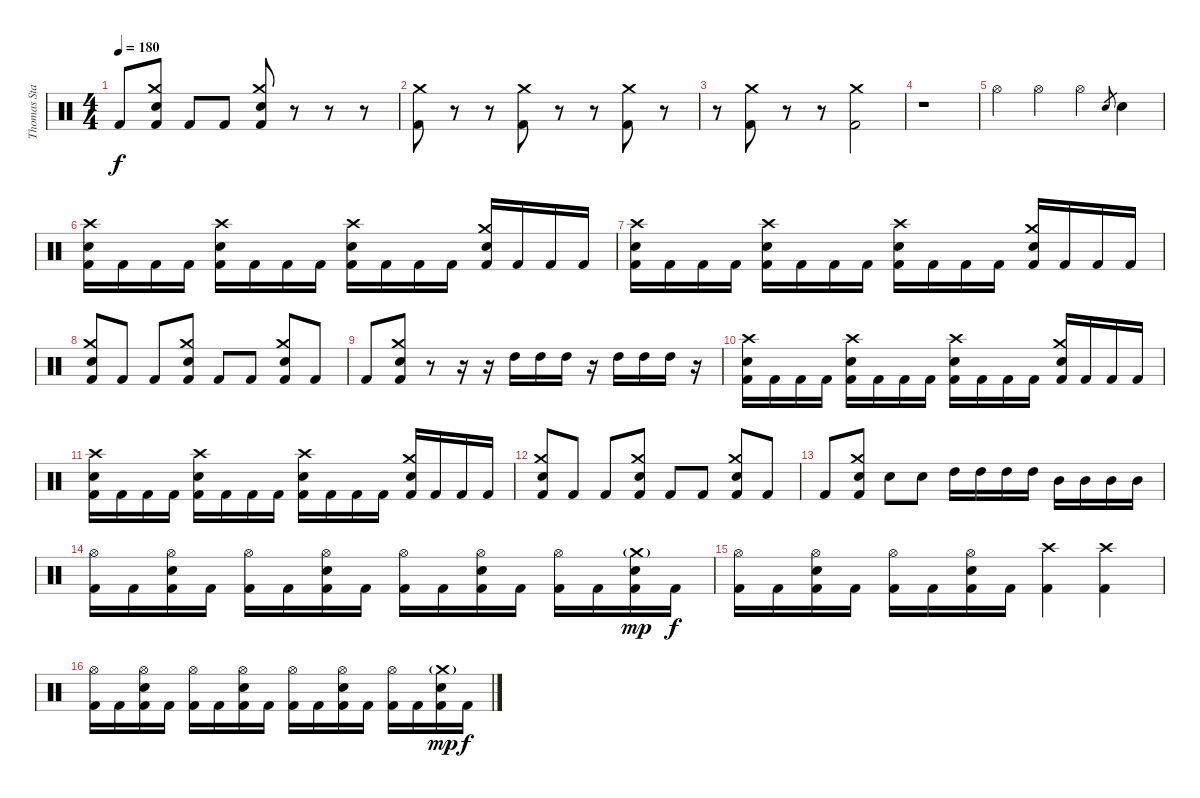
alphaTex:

\track ("Thomas Stauch" "Thomas Sta") {instrument percussion}
\staff {score}
\articulation defaults
\ts (4 4)
\tempo 180
\clef neutral
\ks c "Kick (hit) 2".8{dy f}
("Crash medium (hit)" "Electric Snare (hit)" "Kick (hit) 2").8 "Kick (hit) 2".8 "Kick (hit) 2".8 ("Crash medium (hit)" "Electric Snare (hit)" "Kick (hit) 2").8 r.8 r.8 r.8 |
("Crash medium (hit)" "Kick (hit) 2").8 r.8 r.8 ("Crash medium (hit)" "Kick (hit) 2").8 r.8 r.8 ("Crash medium (hit)" "Kick (hit) 2").8 r.8 |
r.8 ("Crash medium (hit)" "Kick (hit) 2").8 r.8 r.8 ("Crash medium (hit)" "Kick (hit) 2").2 |
r.1 |
"Hi-Hat (open)".4 "Hi-Hat (open)".4 "Hi-Hat (open)".4 "Electric Snare (hit)".8{gr} "Electric Snare (hit)".4 |
("Crash high (hit)" "Electric Snare (hit)" "Kick (hit) 2").16 "Kick (hit) 2".16 "Kick (hit) 2".16 "Kick (hit) 2".16 ("Crash high (hit)" "Electric Snare (hit)" "Kick (hit) 2").16 "Kick (hit) 2".16 "Kick (hit) 2".16 "Kick (hit) 2".16 ("Crash high (hit)" "Electric Snare (hit)" "Kick (hit) 2").16 "Kick (hit) 2".16 "Kick (hit) 2".16 "Kick (hit) 2".16 ("Crash medium (hit)" "Electric Snare (hit)" "Kick (hit) 2").16 "Kick (hit) 2".16 "Kick (hit) 2".16 "Kick (hit) 2".16 |
("Crash high (hit)" "Electric Snare (hit)" "Kick (hit) 2").16 "Kick (hit) 2".16 "Kick (hit) 2".16 "Kick (hit) 2".16 ("Crash high (hit)" "Electric Snare (hit)" "Kick (hit) 2").16 "Kick (hit) 2".16 "Kick (hit) 2".16 "Kick (hit) 2".16 ("Crash high (hit)" "Electric Snare (hit)" "Kick (hit) 2").16 "Kick (hit) 2".16 "Kick (hit) 2".16 "Kick (hit) 2".16 ("Crash medium (hit)" "Electric Snare (hit)" "Kick (hit) 2").16 "Kick (hit) 2".16 "Kick (hit) 2".16 "Kick (hit) 2".16 |
("Crash medium (hit)" "Electric Snare (hit)" "Kick (hit) 2").8 "Kick (hit) 2".8 "Kick (hit) 2".8 ("Crash medium (hit)" "Electric Snare (hit)" "Kick (hit) 2").8 "Kick (hit) 2".8 "Kick (hit) 2".8 ("Crash medium (hit)" "Electric Snare (hit)" "Kick (hit) 2").8 "Kick (hit) 2".8 |
"Kick (hit) 2".8 ("Crash medium (hit)" "Electric Snare (hit)" "Kick (hit) 2").8 r.8 r.16 r.16 "High Tom (hit)".16 "High Tom (hit)".16 "High Tom (hit)".16 r.16 "High Tom (hit)".16 "High Tom (hit)".16 "High Tom (hit)".16 r.16 |
("Crash high (hit)" "Electric Snare (hit)" "Kick (hit) 2").16 "Kick (hit) 2".16 "Kick (hit) 2".16 "Kick (hit) 2".16 ("Crash high (hit)" "Electric Snare (hit)" "Kick (hit) 2").16 "Kick (hit) 2".16 "Kick (hit) 2".16 "Kick (hit) 2".16 ("Crash high (hit)" "Electric Snare (hit)" "Kick (hit) 2").16 "Kick (hit) 2".16 "Kick (hit) 2".16 "Kick (hit) 2".16 ("Crash medium (hit)" "Electric Snare (hit)" "Kick (hit) 2").16 "Kick (hit) 2".16 "Kick (hit) 2".16 "Kick (hit) 2".16 |
("Crash high (hit)" "Electric Snare (hit)" "Kick (hit) 2").16 "Kick (hit) 2".16 "Kick (hit) 2".16 "Kick (hit) 2".16 ("Crash high (hit)" "Electric Snare (hit)" "Kick (hit) 2").16 "Kick (hit) 2".16 "Kick (hit) 2".16 "Kick (hit) 2".16 ("Crash high (hit)" "Electric Snare (hit)" "Kick (hit) 2").16 "Kick (hit) 2".16 "Kick (hit) 2".16 "Kick (hit) 2".16 ("Crash medium (hit)" "Electric Snare (hit)" "Kick (hit) 2").16 "Kick (hit) 2".16 "Kick (hit) 2".16 "Kick (hit) 2".16 |
("Crash medium (hit)" "Electric Snare (hit)" "Kick (hit) 2").8 "Kick (hit) 2".8 "Kick (hit) 2".8 ("Crash medium (hit)" "Electric Snare (hit)" "Kick (hit) 2").8 "Kick (hit) 2".8 "Kick (hit) 2".8 ("Crash medium (hit)" "Electric Snare (hit)" "Kick (hit) 2").8 "Kick (hit) 2".8 |
"Kick (hit) 2".8 ("Crash medium (hit)" "Electric Snare (hit)" "Kick (hit) 2").8 "Electric Snare (hit)".8 "Electric Snare (hit)".8 "High Tom (hit)".16 "High Tom (hit)".16 "High Tom (hit)".16 "High Tom (hit)".16 "Mid Tom (hit)".16 "Mid Tom (hit)".16 "Mid Tom (hit)".16 "Mid Tom (hit)".16 |
("Hi-Hat (open)" "Kick (hit) 2").16 "Kick (hit) 2".16 ("Hi-Hat (open)" "Electric Snare (hit)" "Kick (hit) 2").16 "Kick (hit) 2".16 ("Hi-Hat (open)" "Kick (hit) 2").16 "Kick (hit) 2".16 ("Hi-Hat (open)" "Electric Snare (hit)" "Kick (hit) 2").16 "Kick (hit) 2".16 ("Hi-Hat (open)" "Kick (hit) 2").16 "Kick (hit) 2".16 ("Hi-Hat (open)" "Electric Snare (hit)" "Kick (hit) 2").16 "Kick (hit) 2".16 ("Hi-Hat (open)" "Kick (hit) 2").16 "Kick (hit) 2".16 ("Crash medium (hit)"{g} "Electric Snare (hit)" "Kick (hit) 2").16{dy mp} "Kick (hit) 2".16{dy f} |
("Hi-Hat (open)" "Kick (hit) 2").16 "Kick (hit) 2".16 ("Hi-Hat (open)" "Electric Snare (hit)" "Kick (hit) 2").16 "Kick (hit) 2".16 ("Hi-Hat (open)" "Kick (hit) 2").16 "Kick (hit) 2".16 ("Hi-Hat (open)" "Electric Snare (hit)" "Kick (hit) 2").16 "Kick (hit) 2".16 ("Crash high (hit)" "Kick (hit) 2").4 ("Crash high (hit)" "Kick (hit) 2").4 |
("Hi-Hat (open)" "Kick (hit) 2").16 "Kick (hit) 2".16 ("Hi-Hat (open)" "Electric Snare (hit)" "Kick (hit) 2").16 "Kick (hit) 2".16 ("Hi-Hat (open)" "Kick (hit) 2").16 "Kick (hit) 2".16 ("Hi-Hat (open)" "Electric Snare (hit)" "Kick (hit) 2").16 "Kick (hit) 2".16 ("Hi-Hat (open)" "Kick (hit) 2").16 "Kick (hit) 2".16 ("Hi-Hat (open)" "Electric Snare (hit)" "Kick (hit) 2").16 "Kick (hit) 2".16 ("Hi-Hat (open)" "Kick (hit) 2").16 "Kick (hit) 2".16 ("Crash medium (hit)"{g} "Electric Snare (hit)" "Kick (hit) 2").16{dy mp} "Kick (hit) 2".16{dy f}
